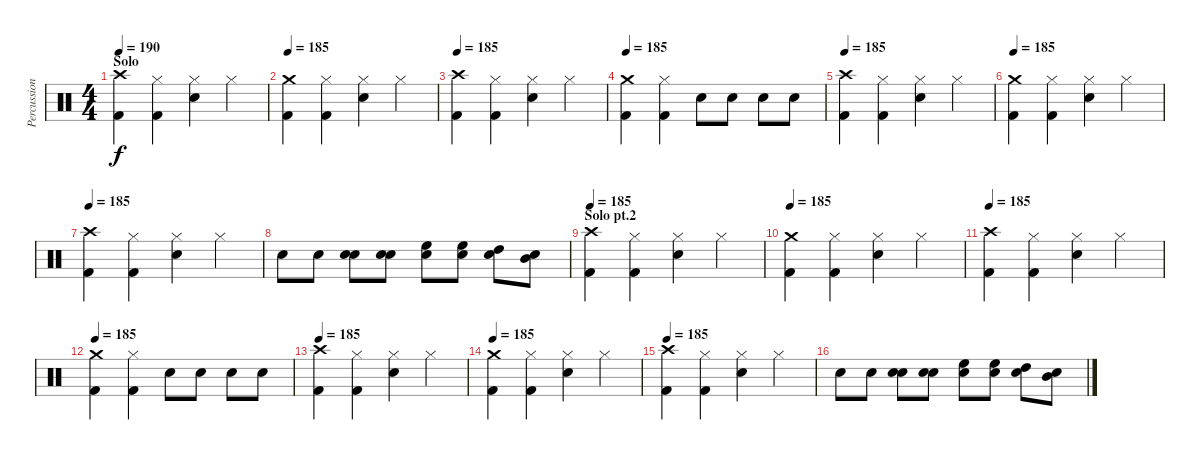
\track ("Percussion" "Percussion") {instrument percussion}
\staff {score}
\articulation defaults
\ts (4 4)
\section ("" "Solo")
\tempo 190
\clef neutral
\ks c
("Crash high (hit)" "Kick (hit) 2").4{dy f} ("Hi-Hat (closed)" "Kick (hit) 2").4 ("Electric Snare (hit)" "Hi-Hat (closed)").4 "Hi-Hat (closed)".4 |
\tempo 185
("Crash medium (hit)" "Kick (hit) 2").4 ("Hi-Hat (closed)" "Kick (hit) 2").4 ("Electric Snare (hit)" "Hi-Hat (closed)").4 "Hi-Hat (closed)".4 |
\tempo 185
("Crash high (hit)" "Kick (hit) 2").4 ("Hi-Hat (closed)" "Kick (hit) 2").4 ("Electric Snare (hit)" "Hi-Hat (closed)").4 "Hi-Hat (closed)".4 |
\tempo 185
("Crash medium (hit)" "Kick (hit) 2").4 ("Hi-Hat (closed)" "Kick (hit) 2").4 "Electric Snare (hit)".8 "Electric Snare (hit)".8 "Electric Snare (hit)".8 "Electric Snare (hit)".8 |
\tempo 185
("Crash high (hit)" "Kick (hit) 2").4 ("Hi-Hat (closed)" "Kick (hit) 2").4 ("Electric Snare (hit)" "Hi-Hat (closed)").4 "Hi-Hat (closed)".4 |
\tempo 185
("Crash medium (hit)" "Kick (hit) 2").4 ("Hi-Hat (closed)" "Kick (hit) 2").4 ("Electric Snare (hit)" "Hi-Hat (closed)").4 "Hi-Hat (closed)".4 |
\tempo 185
("Crash high (hit)" "Kick (hit) 2").4 ("Hi-Hat (closed)" "Kick (hit) 2").4 ("Electric Snare (hit)" "Hi-Hat (closed)").4 "Hi-Hat (closed)".4 |
"Electric Snare (hit)".8 "Electric Snare (hit)".8 ("Electric Snare (hit)" "Electric Snare (hit)").8 ("Electric Snare (hit)" "Electric Snare (hit)").8 ("High Floor Tom (hit)" "Electric Snare (hit)").8 ("High Floor Tom (hit)" "Electric Snare (hit)").8 ("High Tom (hit)" "Electric Snare (hit)").8 ("Mid Tom (hit)" "Electric Snare (hit)").8 |
\section ("" "Solo pt.2")
\tempo 185
("Crash high (hit)" "Kick (hit) 2").4 ("Hi-Hat (closed)" "Kick (hit) 2").4 ("Electric Snare (hit)" "Hi-Hat (closed)").4 "Hi-Hat (closed)".4 |
\tempo 185
("Crash medium (hit)" "Kick (hit) 2").4 ("Hi-Hat (closed)" "Kick (hit) 2").4 ("Electric Snare (hit)" "Hi-Hat (closed)").4 "Hi-Hat (closed)".4 |
\tempo 185
("Crash high (hit)" "Kick (hit) 2").4 ("Hi-Hat (closed)" "Kick (hit) 2").4 ("Electric Snare (hit)" "Hi-Hat (closed)").4 "Hi-Hat (closed)".4 |
\tempo 185
("Crash medium (hit)" "Kick (hit) 2").4 ("Hi-Hat (closed)" "Kick (hit) 2").4 "Electric Snare (hit)".8 "Electric Snare (hit)".8 "Electric Snare (hit)".8 "Electric Snare (hit)".8 |
\tempo 185
("Crash high (hit)" "Kick (hit) 2").4 ("Hi-Hat (closed)" "Kick (hit) 2").4 ("Electric Snare (hit)" "Hi-Hat (closed)").4 "Hi-Hat (closed)".4 |
\tempo 185
("Crash medium (hit)" "Kick (hit) 2").4 ("Hi-Hat (closed)" "Kick (hit) 2").4 ("Electric Snare (hit)" "Hi-Hat (closed)").4 "Hi-Hat (closed)".4 |
\tempo 185
("Crash high (hit)" "Kick (hit) 2").4 ("Hi-Hat (closed)" "Kick (hit) 2").4 ("Electric Snare (hit)" "Hi-Hat (closed)").4 "Hi-Hat (closed)".4 |
"Electric Snare (hit)".8 "Electric Snare (hit)".8 ("Electric Snare (hit)" "Electric Snare (hit)").8 ("Electric Snare (hit)" "Electric Snare (hit)").8 ("High Floor Tom (hit)" "Electric Snare (hit)").8 ("High Floor Tom (hit)" "Electric Snare (hit)").8 ("High Tom (hit)" "Electric Snare (hit)").8 ("Mid Tom (hit)" "Electric Snare (hit)").8
